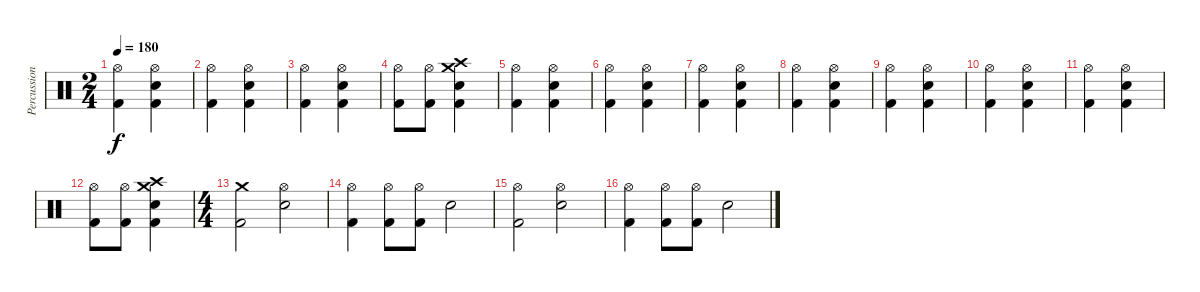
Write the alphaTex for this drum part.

\track ("Percussion" "Percussion") {instrument percussion}
\staff {score}
\articulation defaults
\ts (2 4)
\tempo 180
\clef neutral
\ks c
("Hi-Hat (open)" "Kick (hit) 2").4{dy f} ("Hi-Hat (open)" "Snare (hit) 2" "Kick (hit) 2").4 |
("Hi-Hat (open)" "Kick (hit) 2").4 ("Hi-Hat (open)" "Snare (hit) 2" "Kick (hit) 2").4 |
("Hi-Hat (open)" "Kick (hit) 2").4 ("Hi-Hat (open)" "Snare (hit) 2" "Kick (hit) 2").4 |
("Hi-Hat (open)" "Kick (hit) 2").8 ("Hi-Hat (open)" "Kick (hit) 2").8 ("Crash medium (hit)" "Crash high (hit)" "Snare (hit) 2" "Kick (hit) 2").4 |
("Hi-Hat (open)" "Kick (hit) 2").4 ("Hi-Hat (open)" "Snare (hit) 2" "Kick (hit) 2").4 |
("Hi-Hat (open)" "Kick (hit) 2").4 ("Hi-Hat (open)" "Snare (hit) 2" "Kick (hit) 2").4 |
("Hi-Hat (open)" "Kick (hit) 2").4 ("Hi-Hat (open)" "Snare (hit) 2" "Kick (hit) 2").4 |
("Hi-Hat (open)" "Kick (hit) 2").4 ("Hi-Hat (open)" "Snare (hit) 2" "Kick (hit) 2").4 |
("Hi-Hat (open)" "Kick (hit) 2").4 ("Hi-Hat (open)" "Snare (hit) 2" "Kick (hit) 2").4 |
("Hi-Hat (open)" "Kick (hit) 2").4 ("Hi-Hat (open)" "Snare (hit) 2" "Kick (hit) 2").4 |
("Hi-Hat (open)" "Kick (hit) 2").4 ("Hi-Hat (open)" "Snare (hit) 2" "Kick (hit) 2").4 |
("Hi-Hat (open)" "Kick (hit) 2").8 ("Hi-Hat (open)" "Kick (hit) 2").8 ("Crash medium (hit)" "Crash high (hit)" "Snare (hit) 2" "Kick (hit) 2").4 |
\ts (4 4)
("Crash medium (hit)" "Kick (hit) 2").2 ("Hi-Hat (open)" "Snare (hit) 2").2 |
("Hi-Hat (open)" "Kick (hit) 2").4 ("Hi-Hat (open)" "Kick (hit) 2").8 ("Hi-Hat (open)" "Kick (hit) 2").8 "Snare (hit) 2".2 |
("Hi-Hat (open)" "Kick (hit) 2").2 ("Hi-Hat (open)" "Snare (hit) 2").2 |
("Hi-Hat (open)" "Kick (hit) 2").4 ("Hi-Hat (open)" "Kick (hit) 2").8 ("Hi-Hat (open)" "Kick (hit) 2").8 "Snare (hit) 2".2
